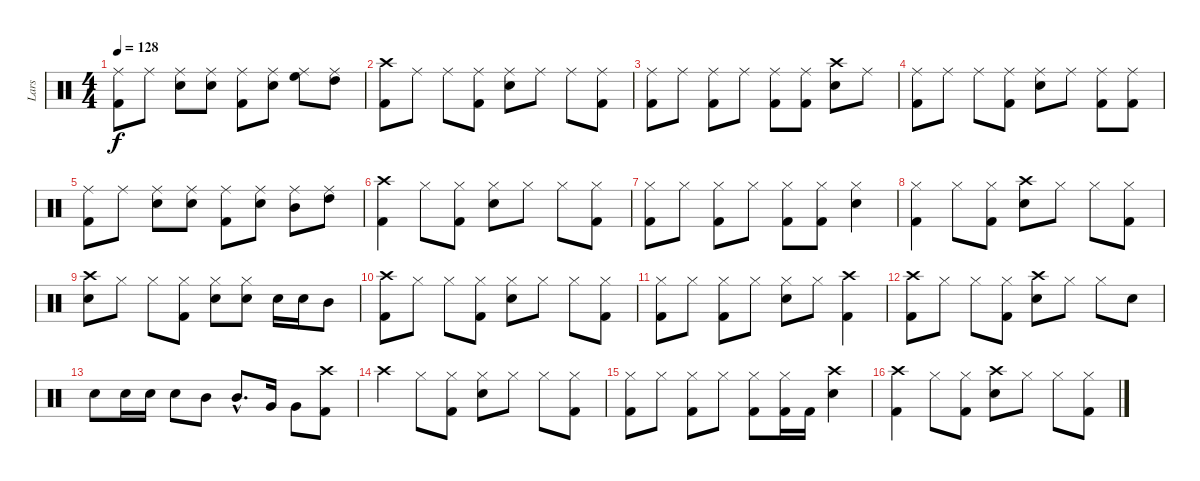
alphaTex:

\track ("Lars" "Lars") {instrument percussion}
\staff {score}
\articulation defaults
\ts (4 4)
\tempo 128
\clef neutral
\ks c
("Ride (middle)" "Kick (hit) 2").8{dy f} "Ride (middle)".8 ("Ride (middle)" "Electric Snare (hit)").8 ("Ride (middle)" "Electric Snare (hit)").8 ("Ride (middle)" "Kick (hit) 2").8 ("Ride (middle)" "Electric Snare (hit)").8 ("Ride (middle)" "High Floor Tom (hit)").8 ("Ride (middle)" "High Tom (hit)").8 |
("Crash high (hit)" "Kick (hit) 2").8 "Ride (middle)".8 "Ride (middle)".8 ("Ride (middle)" "Kick (hit) 2").8 ("Ride (middle)" "Electric Snare (hit)").8 "Ride (middle)".8 "Ride (middle)".8 ("Ride (middle)" "Kick (hit) 2").8 |
("Ride (middle)" "Kick (hit) 2").8 "Ride (middle)".8 ("Ride (middle)" "Kick (hit) 2").8 "Ride (middle)".8 ("Ride (middle)" "Kick (hit) 2").8 ("Ride (middle)" "Kick (hit) 2").8 ("Crash high (hit)" "Electric Snare (hit)").8 "Ride (middle)".8 |
("Ride (middle)" "Kick (hit) 2").8 "Ride (middle)".8 "Ride (middle)".8 ("Ride (middle)" "Kick (hit) 2").8 ("Ride (middle)" "Electric Snare (hit)").8 "Ride (middle)".8 ("Ride (middle)" "Kick (hit) 2").8 ("Ride (middle)" "Kick (hit) 2").8 |
("Ride (middle)" "Kick (hit) 2").8 "Ride (middle)".8 ("Ride (middle)" "Electric Snare (hit)").8 ("Ride (middle)" "Electric Snare (hit)").8 ("Ride (middle)" "Kick (hit) 2").8 ("Ride (middle)" "Electric Snare (hit)").8 ("Ride (middle)" "Mid Tom (hit)").8 ("Ride (middle)" "High Tom (hit)").8 |
("Crash high (hit)" "Kick (hit) 2").4 "Hi-Hat (closed)".8 ("Hi-Hat (closed)" "Kick (hit) 2").8 ("Hi-Hat (closed)" "Electric Snare (hit)").8 "Hi-Hat (closed)".8 "Hi-Hat (closed)".8 ("Hi-Hat (closed)" "Kick (hit) 2").8 |
("Hi-Hat (closed)" "Kick (hit) 2").8 "Hi-Hat (closed)".8 ("Hi-Hat (closed)" "Kick (hit) 2").8 "Hi-Hat (closed)".8 ("Hi-Hat (closed)" "Kick (hit) 2").8 ("Hi-Hat (closed)" "Kick (hit) 2").8 ("Hi-Hat (closed)" "Electric Snare (hit)").4 |
("Hi-Hat (closed)" "Kick (hit) 2").4 "Hi-Hat (closed)".8 ("Hi-Hat (closed)" "Kick (hit) 2").8 ("Crash high (hit)" "Electric Snare (hit)").8 "Hi-Hat (closed)".8 "Hi-Hat (closed)".8 ("Hi-Hat (closed)" "Kick (hit) 2").8 |
("Crash high (hit)" "Electric Snare (hit)").8 "Hi-Hat (closed)".8 "Hi-Hat (closed)".8 ("Hi-Hat (closed)" "Kick (hit) 2").8 ("Hi-Hat (closed)" "Electric Snare (hit)").8 ("Hi-Hat (closed)" "Electric Snare (hit)").8 "Electric Snare (hit)".16 "Electric Snare (hit)".16 "Mid Tom (hit)".8 |
("Crash high (hit)" "Kick (hit) 2").8 "Hi-Hat (closed)".8 "Hi-Hat (closed)".8 ("Hi-Hat (closed)" "Kick (hit) 2").8 ("Hi-Hat (closed)" "Electric Snare (hit)").8 "Hi-Hat (closed)".8 "Hi-Hat (closed)".8 ("Hi-Hat (closed)" "Kick (hit) 2").8 |
("Hi-Hat (closed)" "Kick (hit) 2").8 "Hi-Hat (closed)".8 ("Hi-Hat (closed)" "Kick (hit) 2").8 "Hi-Hat (closed)".8 ("Hi-Hat (closed)" "Electric Snare (hit)").8 "Hi-Hat (closed)".8 ("Crash high (hit)" "Kick (hit) 2").4 |
("Crash high (hit)" "Kick (hit) 2").8 "Hi-Hat (closed)".8 "Hi-Hat (closed)".8 ("Hi-Hat (closed)" "Kick (hit) 2").8 ("Crash high (hit)" "Electric Snare (hit)").8 "Hi-Hat (closed)".8 "Hi-Hat (closed)".8 "Snare (hit) 2".8 |
"Electric Snare (hit)".8 "Electric Snare (hit)".16 "Electric Snare (hit)".16 "Electric Snare (hit)".8 "Mid Tom (hit)".8 "Mid Tom (hit)"{hac}.8{d} "Very Low Tom (hit)".16 "Very Low Tom (hit)".8 ("Crash high (hit)" "Kick (hit) 2").8 |
"Crash high (hit)".4 "Hi-Hat (closed)".8 ("Hi-Hat (closed)" "Kick (hit) 2").8 ("Hi-Hat (closed)" "Electric Snare (hit)").8 "Hi-Hat (closed)".8 "Hi-Hat (closed)".8 ("Hi-Hat (closed)" "Kick (hit) 2").8 |
("Hi-Hat (closed)" "Kick (hit) 2").8 "Hi-Hat (closed)".8 ("Hi-Hat (closed)" "Kick (hit) 2").8 "Hi-Hat (closed)".8 ("Hi-Hat (closed)" "Kick (hit) 2").8 ("Hi-Hat (closed)" "Kick (hit) 2").16 "Kick (hit) 2".16 ("Crash high (hit)" "Electric Snare (hit)").4 |
("Crash high (hit)" "Kick (hit) 2").4 "Hi-Hat (closed)".8 ("Hi-Hat (closed)" "Kick (hit) 2").8 ("Crash high (hit)" "Electric Snare (hit)").8 "Hi-Hat (closed)".8 "Hi-Hat (closed)".8 ("Hi-Hat (closed)" "Kick (hit) 2").8
